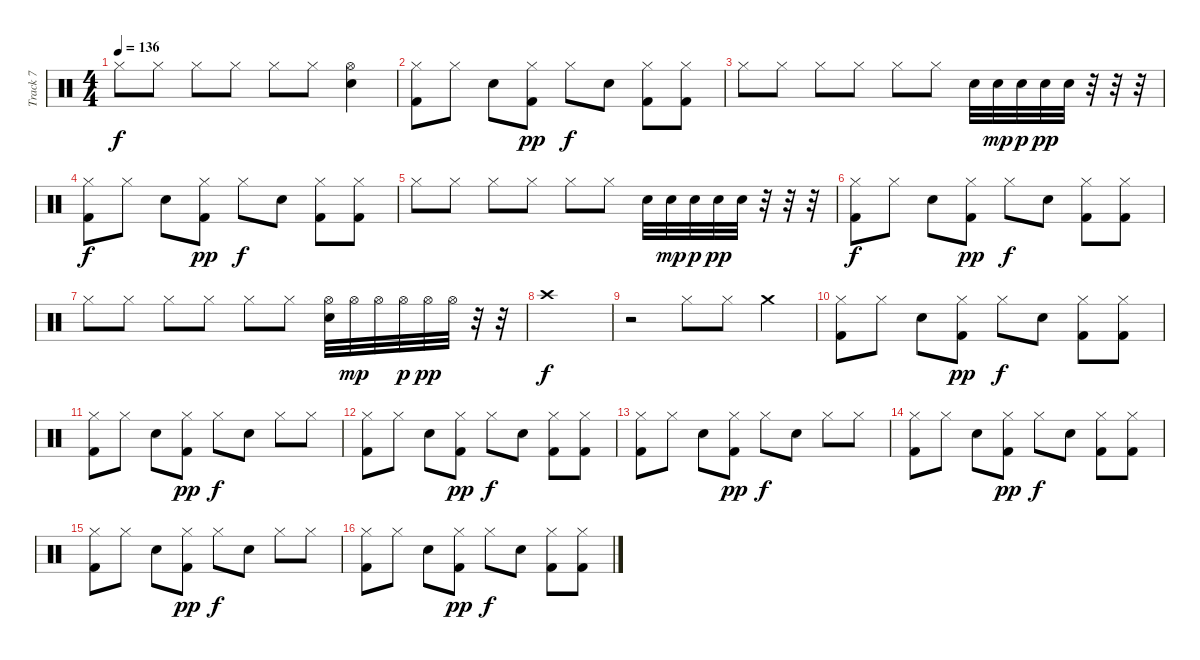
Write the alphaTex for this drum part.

\track ("Track 7" "Track 7") {instrument percussion}
\staff {score}
\articulation defaults
\ts (4 4)
\tempo 136
\clef neutral
\ks c "Hi-Hat (closed)".8{dy f} "Hi-Hat (closed)".8 "Hi-Hat (closed)".8 "Hi-Hat (closed)".8 "Hi-Hat (closed)".8 "Hi-Hat (closed)".8
("Hi-Hat (open)" "Electric Snare (hit)").4 |
("Hi-Hat (closed)" "Kick (hit) 2").8 "Hi-Hat (closed)".8 "Electric Snare (hit)".8 ("Hi-Hat (closed)" "Kick (hit) 2").8{dy pp} "Hi-Hat (closed)".8{dy f} "Electric Snare (hit)".8 ("Hi-Hat (closed)" "Kick (hit) 2").8 ("Hi-Hat (closed)" "Kick (hit) 2").8 |
"Hi-Hat (closed)".8 "Hi-Hat (closed)".8 "Hi-Hat (closed)".8 "Hi-Hat (closed)".8 "Hi-Hat (closed)".8 "Hi-Hat (closed)".8 "Electric Snare (hit)".32 "Electric Snare (hit)".32{dy mp} "Electric Snare (hit)".32{dy p} "Electric Snare (hit)".32{dy pp} "Electric Snare (hit)".32 r.32 r.32 r.32 |
("Hi-Hat (closed)" "Kick (hit) 2").8{dy f} "Hi-Hat (closed)".8 "Electric Snare (hit)".8 ("Hi-Hat (closed)" "Kick (hit) 2").8{dy pp} "Hi-Hat (closed)".8{dy f} "Electric Snare (hit)".8 ("Hi-Hat (closed)" "Kick (hit) 2").8 ("Hi-Hat (closed)" "Kick (hit) 2").8 |
"Hi-Hat (closed)".8 "Hi-Hat (closed)".8 "Hi-Hat (closed)".8 "Hi-Hat (closed)".8 "Hi-Hat (closed)".8 "Hi-Hat (closed)".8 "Electric Snare (hit)".32 "Electric Snare (hit)".32{dy mp} "Electric Snare (hit)".32{dy p} "Electric Snare (hit)".32{dy pp} "Electric Snare (hit)".32 r.32 r.32 r.32 |
("Hi-Hat (closed)" "Kick (hit) 2").8{dy f} "Hi-Hat (closed)".8 "Electric Snare (hit)".8 ("Hi-Hat (closed)" "Kick (hit) 2").8{dy pp} "Hi-Hat (closed)".8{dy f} "Electric Snare (hit)".8 ("Hi-Hat (closed)" "Kick (hit) 2").8 ("Hi-Hat (closed)" "Kick (hit) 2").8 |
"Hi-Hat (closed)".8 "Hi-Hat (closed)".8 "Hi-Hat (closed)".8 "Hi-Hat (closed)".8 "Hi-Hat (closed)".8 "Hi-Hat (closed)".8 ("Hi-Hat (open)" "Electric Snare (hit)").32 "Hi-Hat (open)".32{dy mp} "Hi-Hat (open)".32 "Hi-Hat (open)".32{dy p} "Hi-Hat (open)".32{dy pp} "Hi-Hat (open)".32 r.32 r.32 |
"Crash high (hit)".1{dy f} |
r.2 "Hi-Hat (closed)".8 "Hi-Hat (closed)".8 "Crash medium (hit)".4 |
("Hi-Hat (closed)" "Kick (hit) 2").8 "Hi-Hat (closed)".8 "Electric Snare (hit)".8 ("Hi-Hat (closed)" "Kick (hit) 2").8{dy pp} "Hi-Hat (closed)".8{dy f} "Electric Snare (hit)".8 ("Hi-Hat (closed)" "Kick (hit) 2").8 ("Hi-Hat (closed)" "Kick (hit) 2").8 |
("Hi-Hat (closed)" "Kick (hit) 2").8 "Hi-Hat (closed)".8 "Electric Snare (hit)".8 ("Hi-Hat (closed)" "Kick (hit) 2").8{dy pp} "Hi-Hat (closed)".8{dy f} "Electric Snare (hit)".8 "Hi-Hat (closed)".8 "Hi-Hat (closed)".8 |
("Hi-Hat (closed)" "Kick (hit) 2").8 "Hi-Hat (closed)".8 "Electric Snare (hit)".8 ("Hi-Hat (closed)" "Kick (hit) 2").8{dy pp} "Hi-Hat (closed)".8{dy f} "Electric Snare (hit)".8 ("Hi-Hat (closed)" "Kick (hit) 2").8 ("Hi-Hat (closed)" "Kick (hit) 2").8 |
("Hi-Hat (closed)" "Kick (hit) 2").8 "Hi-Hat (closed)".8 "Electric Snare (hit)".8 ("Hi-Hat (closed)" "Kick (hit) 2").8{dy pp} "Hi-Hat (closed)".8{dy f} "Electric Snare (hit)".8 "Hi-Hat (closed)".8 "Hi-Hat (closed)".8 |
("Hi-Hat (closed)" "Kick (hit) 2").8 "Hi-Hat (closed)".8 "Electric Snare (hit)".8 ("Hi-Hat (closed)" "Kick (hit) 2").8{dy pp} "Hi-Hat (closed)".8{dy f} "Electric Snare (hit)".8 ("Hi-Hat (closed)" "Kick (hit) 2").8 ("Hi-Hat (closed)" "Kick (hit) 2").8 |
("Hi-Hat (closed)" "Kick (hit) 2").8 "Hi-Hat (closed)".8 "Electric Snare (hit)".8 ("Hi-Hat (closed)" "Kick (hit) 2").8{dy pp} "Hi-Hat (closed)".8{dy f} "Electric Snare (hit)".8 "Hi-Hat (closed)".8 "Hi-Hat (closed)".8 |
("Hi-Hat (closed)" "Kick (hit) 2").8 "Hi-Hat (closed)".8 "Electric Snare (hit)".8 ("Hi-Hat (closed)" "Kick (hit) 2").8{dy pp} "Hi-Hat (closed)".8{dy f} "Electric Snare (hit)".8 ("Hi-Hat (closed)" "Kick (hit) 2").8 ("Hi-Hat (closed)" "Kick (hit) 2").8
